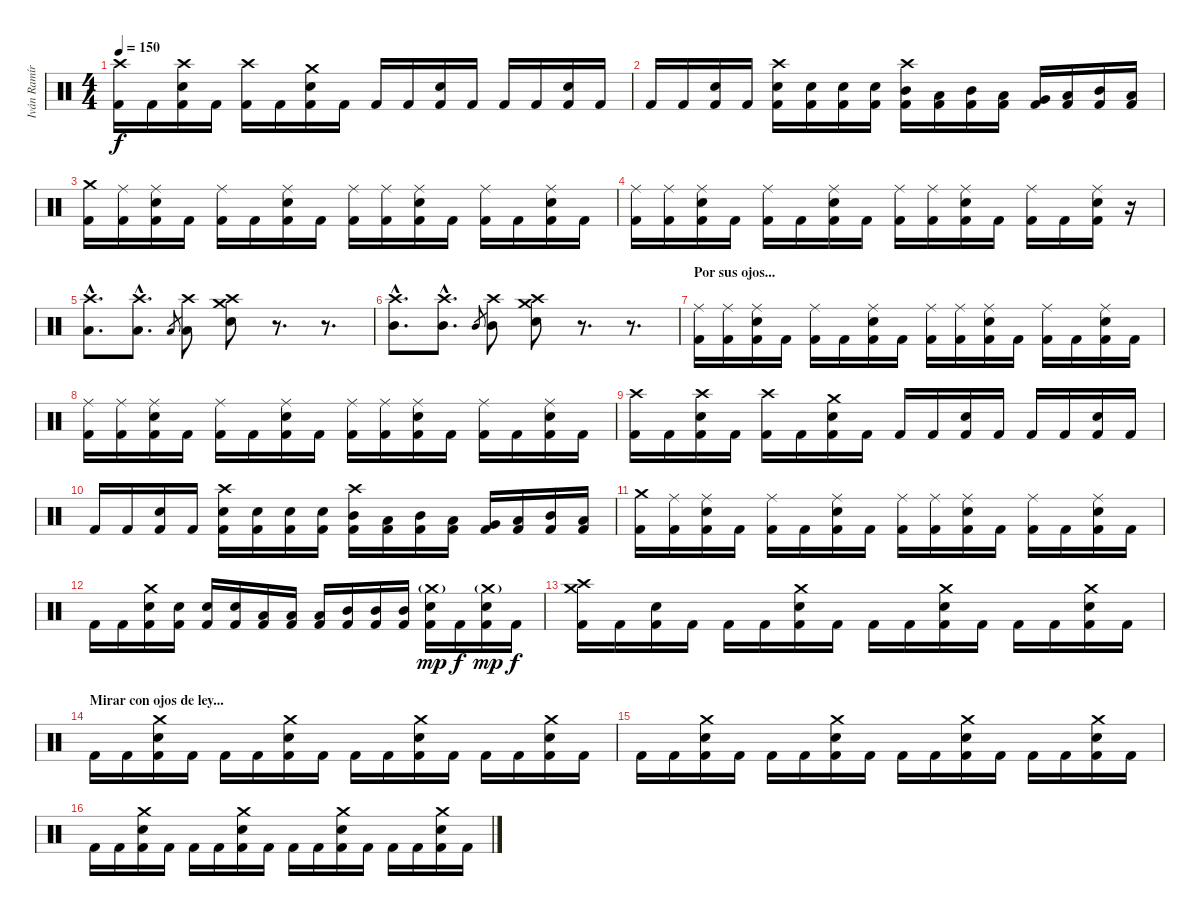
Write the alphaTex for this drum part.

\track ("Iván Ramírez" "Iván Ramír") {instrument percussion}
\staff {score}
\articulation defaults
\ts (4 4)
\tempo 150
\clef neutral
\ks c
("Crash high (hit)" "Kick (hit) 2").16{dy f} "Kick (hit) 2".16 ("Crash high (hit)" "Electric Snare (hit)" "Kick (hit) 2").16 "Kick (hit) 2".16 ("Crash high (hit)" "Kick (hit) 2").16 "Kick (hit) 2".16 ("Crash medium (hit)" "Electric Snare (hit)" "Kick (hit) 2").16 "Kick (hit) 2".16 "Kick (hit) 2".16 "Kick (hit) 2".16 ("Electric Snare (hit)" "Kick (hit) 2").16 "Kick (hit) 2".16 "Kick (hit) 2".16 "Kick (hit) 2".16 ("Electric Snare (hit)" "Kick (hit) 2").16 "Kick (hit) 2".16 |
"Kick (hit) 2".16 "Kick (hit) 2".16 ("Electric Snare (hit)" "Kick (hit) 2").16 "Kick (hit) 2".16 ("Crash high (hit)" "Electric Snare (hit)" "Kick (hit) 2").16 ("Electric Snare (hit)" "Kick (hit) 2").16 ("Electric Snare (hit)" "Kick (hit) 2").16 ("Electric Snare (hit)" "Kick (hit) 2").16 ("Crash high (hit)" "Mid Tom (hit)" "Kick (hit) 2").16 ("Low Tom (hit)" "Kick (hit) 2").16 ("Mid Tom (hit)" "Kick (hit) 2").16 ("Low Tom (hit)" "Kick (hit) 2").16 ("Very Low Tom (hit)" "Kick (hit) 2").16 ("Low Tom (hit)" "Kick (hit) 2").16 ("Mid Tom (hit)" "Kick (hit) 2").16 ("Low Tom (hit)" "Kick (hit) 2").16 |
("Crash medium (hit)" "Kick (hit) 2").16 ("Ride (middle)" "Kick (hit) 2").16 ("Ride (middle)" "Electric Snare (hit)" "Kick (hit) 2").16 "Kick (hit) 2".16 ("Ride (middle)" "Kick (hit) 2").16 "Kick (hit) 2".16 ("Ride (middle)" "Electric Snare (hit)" "Kick (hit) 2").16 "Kick (hit) 2".16 ("Ride (middle)" "Kick (hit) 2").16 ("Ride (middle)" "Kick (hit) 2").16 ("Ride (middle)" "Electric Snare (hit)" "Kick (hit) 2").16 "Kick (hit) 2".16 ("Ride (middle)" "Kick (hit) 2").16 "Kick (hit) 2".16 ("Ride (middle)" "Electric Snare (hit)" "Kick (hit) 2").16 "Kick (hit) 2".16 |
("Ride (middle)" "Kick (hit) 2").16 ("Ride (middle)" "Kick (hit) 2").16 ("Ride (middle)" "Electric Snare (hit)" "Kick (hit) 2").16 "Kick (hit) 2".16 ("Ride (middle)" "Kick (hit) 2").16 "Kick (hit) 2".16 ("Ride (middle)" "Electric Snare (hit)" "Kick (hit) 2").16 "Kick (hit) 2".16 ("Ride (middle)" "Kick (hit) 2").16 ("Ride (middle)" "Kick (hit) 2").16 ("Ride (middle)" "Electric Snare (hit)" "Kick (hit) 2").16 "Kick (hit) 2".16 ("Ride (middle)" "Kick (hit) 2").16 "Kick (hit) 2".16 ("Ride (middle)" "Electric Snare (hit)" "Kick (hit) 2").16 r.16 |
("Crash high (hit)"{hac} "Low Tom (hit)"{hac}).8{d} ("Crash high (hit)"{hac} "Low Tom (hit)"{hac}).8{d} "Low Tom (hit)".8{gr} ("Crash high (hit)" "Low Tom (hit)").8 ("Crash high (hit)" "Crash medium (hit)" "Electric Snare (hit)").8 r.8{d} r.8{d} |
("Crash high (hit)"{hac} "Mid Tom (hit)"{hac}).8{d} ("Crash high (hit)"{hac} "Mid Tom (hit)"{hac}).8{d} "Mid Tom (hit)".8{gr} ("Crash high (hit)" "Mid Tom (hit)").8 ("Crash high (hit)" "Crash medium (hit)" "Electric Snare (hit)").8 r.8{d} r.8{d} |
\section ("" "Por sus ojos...")
("Ride (middle)" "Kick (hit) 2").16 ("Ride (middle)" "Kick (hit) 2").16 ("Ride (middle)" "Electric Snare (hit)" "Kick (hit) 2").16 "Kick (hit) 2".16 ("Ride (middle)" "Kick (hit) 2").16 "Kick (hit) 2".16 ("Ride (middle)" "Electric Snare (hit)" "Kick (hit) 2").16 "Kick (hit) 2".16 ("Ride (middle)" "Kick (hit) 2").16 ("Ride (middle)" "Kick (hit) 2").16 ("Ride (middle)" "Electric Snare (hit)" "Kick (hit) 2").16 "Kick (hit) 2".16 ("Ride (middle)" "Kick (hit) 2").16 "Kick (hit) 2".16 ("Ride (middle)" "Electric Snare (hit)" "Kick (hit) 2").16 "Kick (hit) 2".16 |
("Ride (middle)" "Kick (hit) 2").16 ("Ride (middle)" "Kick (hit) 2").16 ("Ride (middle)" "Electric Snare (hit)" "Kick (hit) 2").16 "Kick (hit) 2".16 ("Ride (middle)" "Kick (hit) 2").16 "Kick (hit) 2".16 ("Ride (middle)" "Electric Snare (hit)" "Kick (hit) 2").16 "Kick (hit) 2".16 ("Ride (middle)" "Kick (hit) 2").16 ("Ride (middle)" "Kick (hit) 2").16 ("Ride (middle)" "Electric Snare (hit)" "Kick (hit) 2").16 "Kick (hit) 2".16 ("Ride (middle)" "Kick (hit) 2").16 "Kick (hit) 2".16 ("Ride (middle)" "Electric Snare (hit)" "Kick (hit) 2").16 "Kick (hit) 2".16 |
("Crash high (hit)" "Kick (hit) 2").16 "Kick (hit) 2".16 ("Crash high (hit)" "Electric Snare (hit)" "Kick (hit) 2").16 "Kick (hit) 2".16 ("Crash high (hit)" "Kick (hit) 2").16 "Kick (hit) 2".16 ("Crash medium (hit)" "Electric Snare (hit)" "Kick (hit) 2").16 "Kick (hit) 2".16 "Kick (hit) 2".16 "Kick (hit) 2".16 ("Electric Snare (hit)" "Kick (hit) 2").16 "Kick (hit) 2".16 "Kick (hit) 2".16 "Kick (hit) 2".16 ("Electric Snare (hit)" "Kick (hit) 2").16 "Kick (hit) 2".16 |
"Kick (hit) 2".16 "Kick (hit) 2".16 ("Electric Snare (hit)" "Kick (hit) 2").16 "Kick (hit) 2".16 ("Crash high (hit)" "Electric Snare (hit)" "Kick (hit) 2").16 ("Electric Snare (hit)" "Kick (hit) 2").16 ("Electric Snare (hit)" "Kick (hit) 2").16 ("Electric Snare (hit)" "Kick (hit) 2").16 ("Crash high (hit)" "Mid Tom (hit)" "Kick (hit) 2").16 ("Low Tom (hit)" "Kick (hit) 2").16 ("Mid Tom (hit)" "Kick (hit) 2").16 ("Low Tom (hit)" "Kick (hit) 2").16 ("Very Low Tom (hit)" "Kick (hit) 2").16 ("Low Tom (hit)" "Kick (hit) 2").16 ("Mid Tom (hit)" "Kick (hit) 2").16 ("Low Tom (hit)" "Kick (hit) 2").16 |
("Crash medium (hit)" "Kick (hit) 2").16 ("Ride (middle)" "Kick (hit) 2").16 ("Ride (middle)" "Electric Snare (hit)" "Kick (hit) 2").16 "Kick (hit) 2".16 ("Ride (middle)" "Kick (hit) 2").16 "Kick (hit) 2".16 ("Ride (middle)" "Electric Snare (hit)" "Kick (hit) 2").16 "Kick (hit) 2".16 ("Ride (middle)" "Kick (hit) 2").16 ("Ride (middle)" "Kick (hit) 2").16 ("Ride (middle)" "Electric Snare (hit)" "Kick (hit) 2").16 "Kick (hit) 2".16 ("Ride (middle)" "Kick (hit) 2").16 "Kick (hit) 2".16 ("Ride (middle)" "Electric Snare (hit)" "Kick (hit) 2").16 "Kick (hit) 2".16 |
"Kick (hit) 2".16 "Kick (hit) 2".16 ("Crash medium (hit)" "Electric Snare (hit)" "Kick (hit) 2").16 ("Electric Snare (hit)" "Kick (hit) 2").16 ("Electric Snare (hit)" "Kick (hit) 2").16 ("Electric Snare (hit)" "Kick (hit) 2").16 ("Low Tom (hit)" "Kick (hit) 2").16 ("Low Tom (hit)" "Kick (hit) 2").16 ("Low Tom (hit)" "Kick (hit) 2").16 ("Mid Tom (hit)" "Kick (hit) 2").16 ("Mid Tom (hit)" "Kick (hit) 2").16 ("Mid Tom (hit)" "Kick (hit) 2").16 ("Crash medium (hit)"{g} "Electric Snare (hit)" "Kick (hit) 2").16{dy mp} "Kick (hit) 2".16{dy f} ("Crash medium (hit)"{g} "Electric Snare (hit)" "Kick (hit) 2").16{dy mp} "Kick (hit) 2".16{dy f} |
("Crash medium (hit)" "Crash high (hit)" "Kick (hit) 2").16 "Kick (hit) 2".16 ("Electric Snare (hit)" "Kick (hit) 2").16 "Kick (hit) 2".16 "Kick (hit) 2".16 "Kick (hit) 2".16 ("Crash medium (hit)" "Electric Snare (hit)" "Kick (hit) 2").16 "Kick (hit) 2".16 "Kick (hit) 2".16 "Kick (hit) 2".16 ("Crash medium (hit)" "Electric Snare (hit)" "Kick (hit) 2").16 "Kick (hit) 2".16 "Kick (hit) 2".16 "Kick (hit) 2".16 ("Crash medium (hit)" "Electric Snare (hit)" "Kick (hit) 2").16 "Kick (hit) 2".16 |
\section ("" "Mirar con ojos de ley...")
"Kick (hit) 2".16 "Kick (hit) 2".16 ("Crash medium (hit)" "Electric Snare (hit)" "Kick (hit) 2").16 "Kick (hit) 2".16 "Kick (hit) 2".16 "Kick (hit) 2".16 ("Crash medium (hit)" "Electric Snare (hit)" "Kick (hit) 2").16 "Kick (hit) 2".16 "Kick (hit) 2".16 "Kick (hit) 2".16 ("Crash medium (hit)" "Electric Snare (hit)" "Kick (hit) 2").16 "Kick (hit) 2".16 "Kick (hit) 2".16 "Kick (hit) 2".16 ("Crash medium (hit)" "Electric Snare (hit)" "Kick (hit) 2").16 "Kick (hit) 2".16 |
"Kick (hit) 2".16 "Kick (hit) 2".16 ("Crash medium (hit)" "Electric Snare (hit)" "Kick (hit) 2").16 "Kick (hit) 2".16 "Kick (hit) 2".16 "Kick (hit) 2".16 ("Crash medium (hit)" "Electric Snare (hit)" "Kick (hit) 2").16 "Kick (hit) 2".16 "Kick (hit) 2".16 "Kick (hit) 2".16 ("Crash medium (hit)" "Electric Snare (hit)" "Kick (hit) 2").16 "Kick (hit) 2".16 "Kick (hit) 2".16 "Kick (hit) 2".16 ("Crash medium (hit)" "Electric Snare (hit)" "Kick (hit) 2").16 "Kick (hit) 2".16 |
"Kick (hit) 2".16 "Kick (hit) 2".16 ("Crash medium (hit)" "Electric Snare (hit)" "Kick (hit) 2").16 "Kick (hit) 2".16 "Kick (hit) 2".16 "Kick (hit) 2".16 ("Crash medium (hit)" "Electric Snare (hit)" "Kick (hit) 2").16 "Kick (hit) 2".16 "Kick (hit) 2".16 "Kick (hit) 2".16 ("Crash medium (hit)" "Electric Snare (hit)" "Kick (hit) 2").16 "Kick (hit) 2".16 "Kick (hit) 2".16 "Kick (hit) 2".16 ("Crash medium (hit)" "Electric Snare (hit)" "Kick (hit) 2").16 "Kick (hit) 2".16
